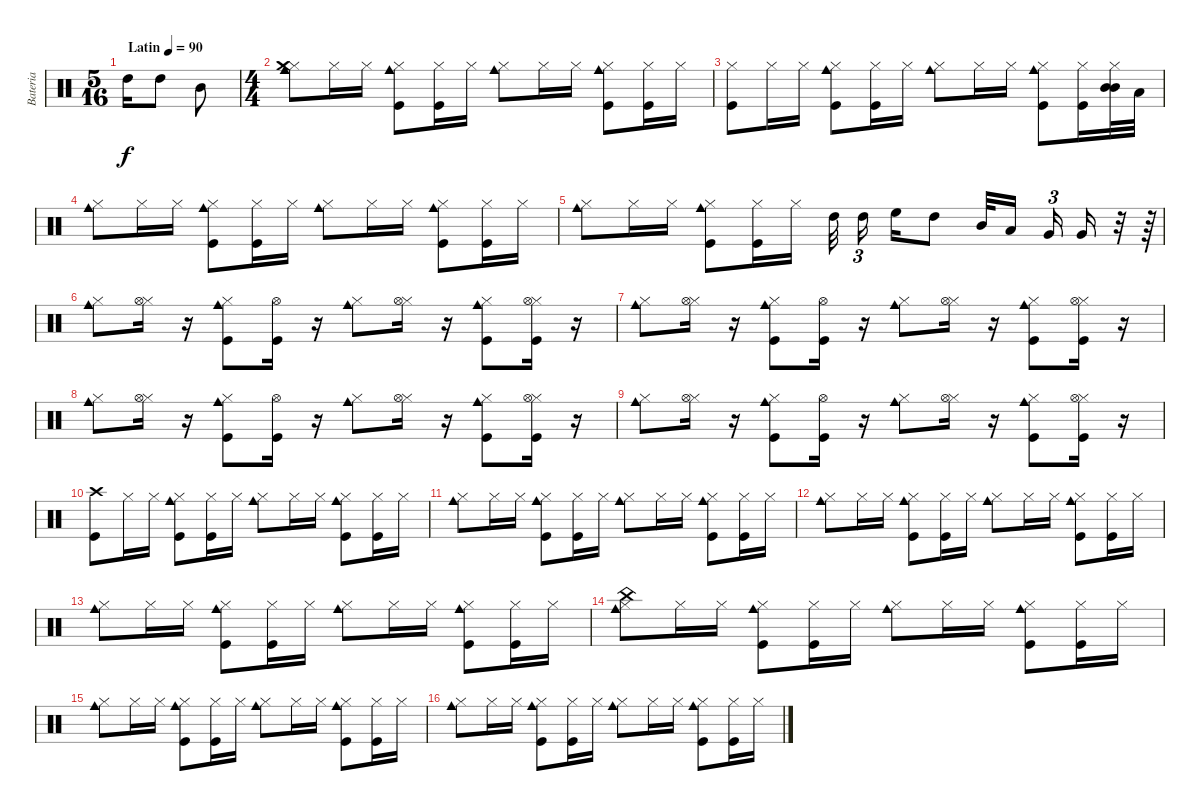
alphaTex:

\track ("Bateria" "Bateria") {instrument percussion}
\staff {score}
\articulation defaults
\ts (5 16)
\tempo (90 "Latin")
\clef neutral
\ks c "High Tom (hit)".16{dy f} "High Tom (hit)".8 "Mid Tom (hit)".8
|
\ts (4 4)
("Hi-Hat (closed)" "Crash medium (hit)" "Cowbell medium (hit)").8 "Hi-Hat (closed)".16 "Hi-Hat (closed)".16 ("Hi-Hat (closed)" "Kick (hit)" "Cowbell medium (hit)").8 ("Hi-Hat (closed)" "Kick (hit)").16 "Hi-Hat (closed)".16 ("Hi-Hat (closed)" "Cowbell medium (hit)").8 "Hi-Hat (closed)".16 "Hi-Hat (closed)".16 ("Hi-Hat (closed)" "Kick (hit)" "Cowbell medium (hit)").8 ("Hi-Hat (closed)" "Kick (hit)").16 "Hi-Hat (closed)".16 |
("Kick (hit)" "Hi-Hat (closed)").8 "Hi-Hat (closed)".16 "Hi-Hat (closed)".16 ("Hi-Hat (closed)" "Kick (hit)" "Cowbell medium (hit)").8 ("Hi-Hat (closed)" "Kick (hit)").16 "Hi-Hat (closed)".16 ("Hi-Hat (closed)" "Cowbell medium (hit)").8 "Hi-Hat (closed)".16 "Hi-Hat (closed)".16 ("Hi-Hat (closed)" "Kick (hit)" "Cowbell medium (hit)").8 ("Hi-Hat (closed)" "Kick (hit)").16 ("Hi-Hat (closed)" "Mid Tom (hit)" "Mid Tom (hit)").32 "Low Tom (hit)".32 |
("Hi-Hat (closed)" "Cowbell medium (hit)").8 "Hi-Hat (closed)".16 "Hi-Hat (closed)".16 ("Hi-Hat (closed)" "Kick (hit)" "Cowbell medium (hit)").8 ("Hi-Hat (closed)" "Kick (hit)").16 "Hi-Hat (closed)".16 ("Hi-Hat (closed)" "Cowbell medium (hit)").8 "Hi-Hat (closed)".16 "Hi-Hat (closed)".16 ("Hi-Hat (closed)" "Kick (hit)" "Cowbell medium (hit)").8 ("Hi-Hat (closed)" "Kick (hit)").16 "Hi-Hat (closed)".16 |
("Hi-Hat (closed)" "Cowbell medium (hit)").8 "Hi-Hat (closed)".16 "Hi-Hat (closed)".16 ("Hi-Hat (closed)" "Kick (hit)" "Cowbell medium (hit)").8 ("Hi-Hat (closed)" "Kick (hit)").16 "Hi-Hat (closed)".16 "High Tom (hit)".32{beam splitsecondary} "High Tom (hit)".16{tu (3 2) beam splitsecondary} "High Floor Tom (hit)".16 "High Tom (hit)".8 "Mid Tom (hit)".32 "Low Tom (hit)".16{beam splitsecondary} "Very Low Tom (hit)".16{tu (3 2)} "Very Low Tom (hit)".16 r.32 r.64{tu (3 2)} |
("Hi-Hat (closed)" "Cowbell medium (hit)").8 ("Hi-Hat (closed)" "Hi-Hat (open)").16 r.16 ("Hi-Hat (closed)" "Kick (hit)" "Cowbell medium (hit)").8 ("Kick (hit)" "Hi-Hat (open)").16 r.16 ("Hi-Hat (closed)" "Cowbell medium (hit)").8 ("Hi-Hat (closed)" "Hi-Hat (open)").16 r.16 ("Hi-Hat (closed)" "Kick (hit)" "Cowbell medium (hit)").8 ("Hi-Hat (closed)" "Kick (hit)" "Hi-Hat (open)").16 r.16 |
("Hi-Hat (closed)" "Cowbell medium (hit)").8 ("Hi-Hat (closed)" "Hi-Hat (open)").16 r.16 ("Hi-Hat (closed)" "Kick (hit)" "Cowbell medium (hit)").8 ("Kick (hit)" "Hi-Hat (open)").16 r.16 ("Hi-Hat (closed)" "Cowbell medium (hit)").8 ("Hi-Hat (closed)" "Hi-Hat (open)").16 r.16 ("Hi-Hat (closed)" "Kick (hit)" "Cowbell medium (hit)").8 ("Hi-Hat (closed)" "Kick (hit)" "Hi-Hat (open)").16 r.16 |
("Hi-Hat (closed)" "Cowbell medium (hit)").8 ("Hi-Hat (closed)" "Hi-Hat (open)").16 r.16 ("Hi-Hat (closed)" "Kick (hit)" "Cowbell medium (hit)").8 ("Kick (hit)" "Hi-Hat (open)").16 r.16 ("Hi-Hat (closed)" "Cowbell medium (hit)").8 ("Hi-Hat (closed)" "Hi-Hat (open)").16 r.16 ("Hi-Hat (closed)" "Kick (hit)" "Cowbell medium (hit)").8 ("Hi-Hat (closed)" "Kick (hit)" "Hi-Hat (open)").16 r.16 |
("Hi-Hat (closed)" "Cowbell medium (hit)").8 ("Hi-Hat (closed)" "Hi-Hat (open)").16 r.16 ("Hi-Hat (closed)" "Kick (hit)" "Cowbell medium (hit)").8 ("Kick (hit)" "Hi-Hat (open)").16 r.16 ("Hi-Hat (closed)" "Cowbell medium (hit)").8 ("Hi-Hat (closed)" "Hi-Hat (open)").16 r.16 ("Hi-Hat (closed)" "Kick (hit)" "Cowbell medium (hit)").8 ("Hi-Hat (closed)" "Kick (hit)" "Hi-Hat (open)").16 r.16 |
("Kick (hit)" "Crash high (hit)").8 "Hi-Hat (closed)".16 "Hi-Hat (closed)".16 ("Hi-Hat (closed)" "Kick (hit)" "Cowbell medium (hit)").8 ("Hi-Hat (closed)" "Kick (hit)").16 "Hi-Hat (closed)".16 ("Hi-Hat (closed)" "Cowbell medium (hit)").8 "Hi-Hat (closed)".16 "Hi-Hat (closed)".16 ("Hi-Hat (closed)" "Kick (hit)" "Cowbell medium (hit)").8 ("Hi-Hat (closed)" "Kick (hit)").16 "Hi-Hat (closed)".16 |
("Hi-Hat (closed)" "Cowbell medium (hit)").8 "Hi-Hat (closed)".16 "Hi-Hat (closed)".16 ("Hi-Hat (closed)" "Kick (hit)" "Cowbell medium (hit)").8 ("Hi-Hat (closed)" "Kick (hit)").16 "Hi-Hat (closed)".16 ("Hi-Hat (closed)" "Cowbell medium (hit)").8 "Hi-Hat (closed)".16 "Hi-Hat (closed)".16 ("Hi-Hat (closed)" "Kick (hit)" "Cowbell medium (hit)").8 ("Hi-Hat (closed)" "Kick (hit)").16 "Hi-Hat (closed)".16 |
("Hi-Hat (closed)" "Cowbell medium (hit)").8 "Hi-Hat (closed)".16 "Hi-Hat (closed)".16 ("Hi-Hat (closed)" "Kick (hit)" "Cowbell medium (hit)").8 ("Hi-Hat (closed)" "Kick (hit)").16 "Hi-Hat (closed)".16 ("Hi-Hat (closed)" "Cowbell medium (hit)").8 "Hi-Hat (closed)".16 "Hi-Hat (closed)".16 ("Hi-Hat (closed)" "Kick (hit)" "Cowbell medium (hit)").8 ("Hi-Hat (closed)" "Kick (hit)").16 "Hi-Hat (closed)".16 |
("Hi-Hat (closed)" "Cowbell medium (hit)").8 "Hi-Hat (closed)".16 "Hi-Hat (closed)".16 ("Hi-Hat (closed)" "Kick (hit)" "Cowbell medium (hit)").8 ("Hi-Hat (closed)" "Kick (hit)").16 "Hi-Hat (closed)".16 ("Hi-Hat (closed)" "Cowbell medium (hit)").8 "Hi-Hat (closed)".16 "Hi-Hat (closed)".16 ("Hi-Hat (closed)" "Kick (hit)" "Cowbell medium (hit)").8 ("Hi-Hat (closed)" "Kick (hit)").16 "Hi-Hat (closed)".16 |
("Hi-Hat (closed)" "China (hit)" "Cowbell medium (hit)").8 "Hi-Hat (closed)".16 "Hi-Hat (closed)".16 ("Hi-Hat (closed)" "Kick (hit)" "Cowbell medium (hit)").8 ("Hi-Hat (closed)" "Kick (hit)").16 "Hi-Hat (closed)".16 ("Hi-Hat (closed)" "Cowbell medium (hit)").8 "Hi-Hat (closed)".16 "Hi-Hat (closed)".16 ("Hi-Hat (closed)" "Kick (hit)" "Cowbell medium (hit)").8 ("Hi-Hat (closed)" "Kick (hit)").16 "Hi-Hat (closed)".16 |
("Hi-Hat (closed)" "Cowbell medium (hit)").8 "Hi-Hat (closed)".16 "Hi-Hat (closed)".16 ("Hi-Hat (closed)" "Kick (hit)" "Cowbell medium (hit)").8 ("Hi-Hat (closed)" "Kick (hit)").16 "Hi-Hat (closed)".16 ("Hi-Hat (closed)" "Cowbell medium (hit)").8 "Hi-Hat (closed)".16 "Hi-Hat (closed)".16 ("Hi-Hat (closed)" "Kick (hit)" "Cowbell medium (hit)").8 ("Hi-Hat (closed)" "Kick (hit)").16 "Hi-Hat (closed)".16 |
("Hi-Hat (closed)" "Cowbell medium (hit)").8 "Hi-Hat (closed)".16 "Hi-Hat (closed)".16 ("Hi-Hat (closed)" "Kick (hit)" "Cowbell medium (hit)").8 ("Hi-Hat (closed)" "Kick (hit)").16 "Hi-Hat (closed)".16 ("Hi-Hat (closed)" "Cowbell medium (hit)").8 "Hi-Hat (closed)".16 "Hi-Hat (closed)".16 ("Hi-Hat (closed)" "Kick (hit)" "Cowbell medium (hit)").8 ("Hi-Hat (closed)" "Kick (hit)").16 "Hi-Hat (closed)".16
